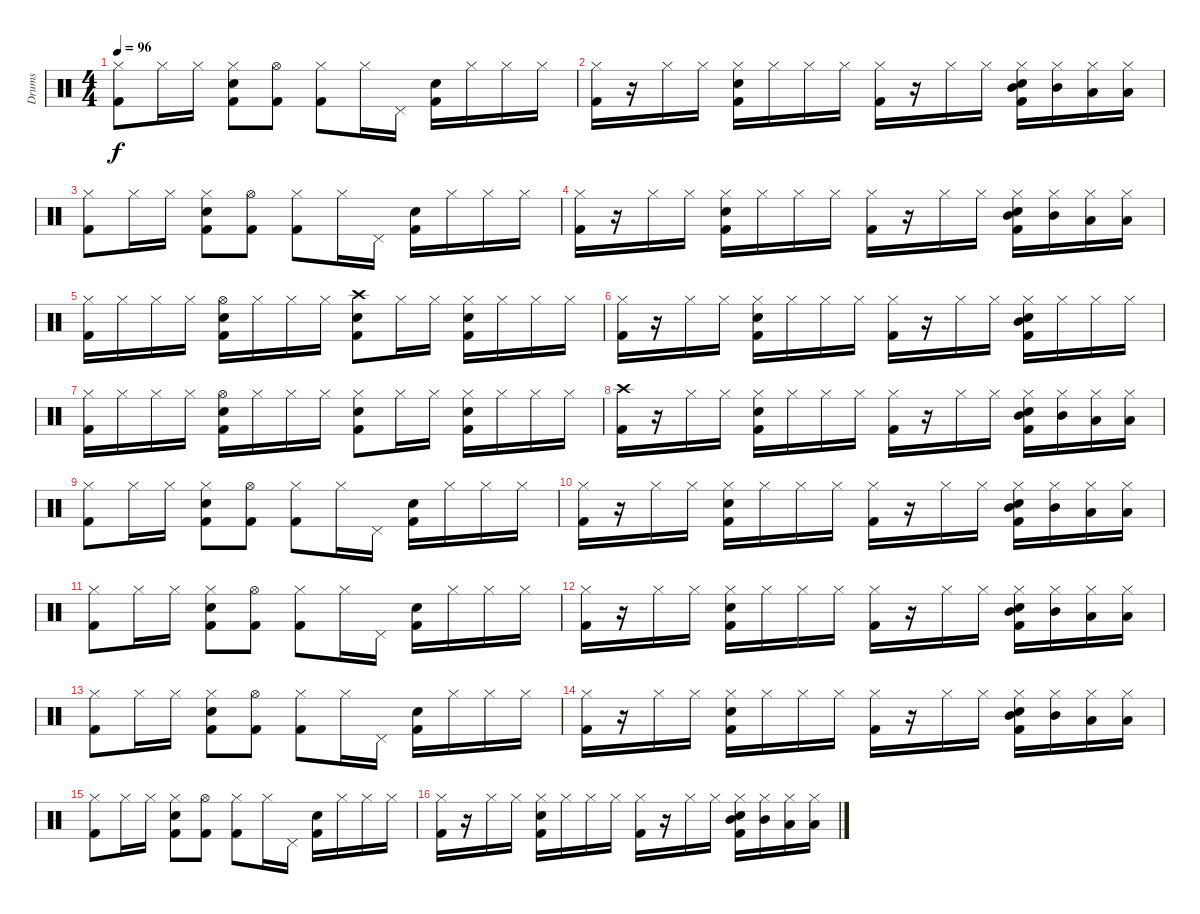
\track ("Drums" "Drums") {instrument percussion}
\staff {score}
\articulation defaults
\ts (4 4)
\tempo 96
\clef neutral
\ks c
("Hi-Hat (closed)" "Kick (hit) 2").8{dy f} "Hi-Hat (closed)".16 "Hi-Hat (closed)".16 ("Hi-Hat (closed)" "Snare (hit) 2" "Kick (hit) 2").8 ("Hi-Hat (open)" "Kick (hit) 2").8 ("Hi-Hat (closed)" "Kick (hit) 2").8 "Hi-Hat (closed)".16 "Pedal Hi-Hat (hit)".16 ("Snare (hit) 2" "Kick (hit) 2").16 "Hi-Hat (closed)".16 "Hi-Hat (closed)".16 "Hi-Hat (closed)".16 |
("Hi-Hat (closed)" "Kick (hit) 2").16 r.16 "Hi-Hat (closed)".16 "Hi-Hat (closed)".16 ("Hi-Hat (closed)" "Snare (hit) 2" "Kick (hit) 2").16 "Hi-Hat (closed)".16 "Hi-Hat (closed)".16 "Hi-Hat (closed)".16 ("Hi-Hat (closed)" "Kick (hit) 2").16 r.16 "Hi-Hat (closed)".16 "Hi-Hat (closed)".16 ("Hi-Hat (closed)" "Snare (hit) 2" "Mid Tom (hit)" "Kick (hit) 2").16 ("Hi-Hat (closed)" "Mid Tom (hit)").16 ("Hi-Hat (closed)" "Low Tom (hit)").16 ("Hi-Hat (closed)" "Low Tom (hit)").16 |
("Hi-Hat (closed)" "Kick (hit) 2").8 "Hi-Hat (closed)".16 "Hi-Hat (closed)".16 ("Hi-Hat (closed)" "Snare (hit) 2" "Kick (hit) 2").8 ("Hi-Hat (open)" "Kick (hit) 2").8 ("Hi-Hat (closed)" "Kick (hit) 2").8 "Hi-Hat (closed)".16 "Pedal Hi-Hat (hit)".16 ("Snare (hit) 2" "Kick (hit) 2").16 "Hi-Hat (closed)".16 "Hi-Hat (closed)".16 "Hi-Hat (closed)".16 |
("Hi-Hat (closed)" "Kick (hit) 2").16 r.16 "Hi-Hat (closed)".16 "Hi-Hat (closed)".16 ("Hi-Hat (closed)" "Snare (hit) 2" "Kick (hit) 2").16 "Hi-Hat (closed)".16 "Hi-Hat (closed)".16 "Hi-Hat (closed)".16 ("Hi-Hat (closed)" "Kick (hit) 2").16 r.16 "Hi-Hat (closed)".16 "Hi-Hat (closed)".16 ("Hi-Hat (closed)" "Snare (hit) 2" "Mid Tom (hit)" "Kick (hit) 2").16 ("Hi-Hat (closed)" "Mid Tom (hit)").16 ("Hi-Hat (closed)" "Low Tom (hit)").16 ("Hi-Hat (closed)" "Low Tom (hit)").16 |
("Hi-Hat (closed)" "Kick (hit) 2").16 "Hi-Hat (closed)".16 "Hi-Hat (closed)".16 "Hi-Hat (closed)".16 ("Hi-Hat (open)" "Snare (hit) 2" "Kick (hit) 2").16 "Hi-Hat (closed)".16 "Hi-Hat (closed)".16 "Hi-Hat (closed)".16 ("Crash high (hit)" "Snare (hit) 2" "Kick (hit) 2").8 "Hi-Hat (closed)".16 "Hi-Hat (closed)".16 ("Hi-Hat (closed)" "Snare (hit) 2" "Kick (hit) 2").16 "Hi-Hat (closed)".16 "Hi-Hat (closed)".16 "Hi-Hat (closed)".16 |
("Hi-Hat (closed)" "Kick (hit) 2").16 r.16 "Hi-Hat (closed)".16 "Hi-Hat (closed)".16 ("Hi-Hat (closed)" "Snare (hit) 2" "Kick (hit) 2").16 "Hi-Hat (closed)".16 "Hi-Hat (closed)".16 "Hi-Hat (closed)".16 ("Hi-Hat (closed)" "Kick (hit) 2").16 r.16 "Hi-Hat (closed)".16 "Hi-Hat (closed)".16 ("Hi-Hat (closed)" "Snare (hit) 2" "Mid Tom (hit)" "Kick (hit) 2").16 "Hi-Hat (closed)".16 "Hi-Hat (closed)".16 "Hi-Hat (closed)".16 |
("Hi-Hat (closed)" "Kick (hit) 2").16 "Hi-Hat (closed)".16 "Hi-Hat (closed)".16 "Hi-Hat (closed)".16 ("Hi-Hat (open)" "Snare (hit) 2" "Kick (hit) 2").16 "Hi-Hat (closed)".16 "Hi-Hat (closed)".16 "Hi-Hat (closed)".16 ("Hi-Hat (closed)" "Snare (hit) 2" "Kick (hit) 2").8 "Hi-Hat (closed)".16 "Hi-Hat (closed)".16 ("Hi-Hat (closed)" "Snare (hit) 2" "Kick (hit) 2").16 "Hi-Hat (closed)".16 "Hi-Hat (closed)".16 "Hi-Hat (closed)".16 |
("Crash high (hit)" "Kick (hit) 2").16 r.16 "Hi-Hat (closed)".16 "Hi-Hat (closed)".16 ("Hi-Hat (closed)" "Snare (hit) 2" "Kick (hit) 2").16 "Hi-Hat (closed)".16 "Hi-Hat (closed)".16 "Hi-Hat (closed)".16 ("Hi-Hat (closed)" "Kick (hit) 2").16 r.16 "Hi-Hat (closed)".16 "Hi-Hat (closed)".16 ("Hi-Hat (closed)" "Snare (hit) 2" "Mid Tom (hit)" "Kick (hit) 2").16 ("Hi-Hat (closed)" "Mid Tom (hit)").16 ("Hi-Hat (closed)" "Low Tom (hit)").16 ("Hi-Hat (closed)" "Low Tom (hit)").16 |
("Hi-Hat (closed)" "Kick (hit) 2").8 "Hi-Hat (closed)".16 "Hi-Hat (closed)".16 ("Hi-Hat (closed)" "Snare (hit) 2" "Kick (hit) 2").8 ("Hi-Hat (open)" "Kick (hit) 2").8 ("Hi-Hat (closed)" "Kick (hit) 2").8 "Hi-Hat (closed)".16 "Pedal Hi-Hat (hit)".16 ("Snare (hit) 2" "Kick (hit) 2").16 "Hi-Hat (closed)".16 "Hi-Hat (closed)".16 "Hi-Hat (closed)".16 |
("Hi-Hat (closed)" "Kick (hit) 2").16 r.16 "Hi-Hat (closed)".16 "Hi-Hat (closed)".16 ("Hi-Hat (closed)" "Snare (hit) 2" "Kick (hit) 2").16 "Hi-Hat (closed)".16 "Hi-Hat (closed)".16 "Hi-Hat (closed)".16 ("Hi-Hat (closed)" "Kick (hit) 2").16 r.16 "Hi-Hat (closed)".16 "Hi-Hat (closed)".16 ("Hi-Hat (closed)" "Snare (hit) 2" "Mid Tom (hit)" "Kick (hit) 2").16 ("Hi-Hat (closed)" "Mid Tom (hit)").16 ("Hi-Hat (closed)" "Low Tom (hit)").16 ("Hi-Hat (closed)" "Low Tom (hit)").16 |
("Hi-Hat (closed)" "Kick (hit) 2").8 "Hi-Hat (closed)".16 "Hi-Hat (closed)".16 ("Hi-Hat (closed)" "Snare (hit) 2" "Kick (hit) 2").8 ("Hi-Hat (open)" "Kick (hit) 2").8 ("Hi-Hat (closed)" "Kick (hit) 2").8 "Hi-Hat (closed)".16 "Pedal Hi-Hat (hit)".16 ("Snare (hit) 2" "Kick (hit) 2").16 "Hi-Hat (closed)".16 "Hi-Hat (closed)".16 "Hi-Hat (closed)".16 |
("Hi-Hat (closed)" "Kick (hit) 2").16 r.16 "Hi-Hat (closed)".16 "Hi-Hat (closed)".16 ("Hi-Hat (closed)" "Snare (hit) 2" "Kick (hit) 2").16 "Hi-Hat (closed)".16 "Hi-Hat (closed)".16 "Hi-Hat (closed)".16 ("Hi-Hat (closed)" "Kick (hit) 2").16 r.16 "Hi-Hat (closed)".16 "Hi-Hat (closed)".16 ("Hi-Hat (closed)" "Snare (hit) 2" "Mid Tom (hit)" "Kick (hit) 2").16 ("Hi-Hat (closed)" "Mid Tom (hit)").16 ("Hi-Hat (closed)" "Low Tom (hit)").16 ("Hi-Hat (closed)" "Low Tom (hit)").16 |
("Hi-Hat (closed)" "Kick (hit) 2").8 "Hi-Hat (closed)".16 "Hi-Hat (closed)".16 ("Hi-Hat (closed)" "Snare (hit) 2" "Kick (hit) 2").8 ("Hi-Hat (open)" "Kick (hit) 2").8 ("Hi-Hat (closed)" "Kick (hit) 2").8 "Hi-Hat (closed)".16 "Pedal Hi-Hat (hit)".16 ("Snare (hit) 2" "Kick (hit) 2").16 "Hi-Hat (closed)".16 "Hi-Hat (closed)".16 "Hi-Hat (closed)".16 |
("Hi-Hat (closed)" "Kick (hit) 2").16 r.16 "Hi-Hat (closed)".16 "Hi-Hat (closed)".16 ("Hi-Hat (closed)" "Snare (hit) 2" "Kick (hit) 2").16 "Hi-Hat (closed)".16 "Hi-Hat (closed)".16 "Hi-Hat (closed)".16 ("Hi-Hat (closed)" "Kick (hit) 2").16 r.16 "Hi-Hat (closed)".16 "Hi-Hat (closed)".16 ("Hi-Hat (closed)" "Snare (hit) 2" "Mid Tom (hit)" "Kick (hit) 2").16 ("Hi-Hat (closed)" "Mid Tom (hit)").16 ("Hi-Hat (closed)" "Low Tom (hit)").16 ("Hi-Hat (closed)" "Low Tom (hit)").16 |
("Hi-Hat (closed)" "Kick (hit) 2").8 "Hi-Hat (closed)".16 "Hi-Hat (closed)".16 ("Hi-Hat (closed)" "Snare (hit) 2" "Kick (hit) 2").8 ("Hi-Hat (open)" "Kick (hit) 2").8 ("Hi-Hat (closed)" "Kick (hit) 2").8 "Hi-Hat (closed)".16 "Pedal Hi-Hat (hit)".16 ("Snare (hit) 2" "Kick (hit) 2").16 "Hi-Hat (closed)".16 "Hi-Hat (closed)".16 "Hi-Hat (closed)".16 |
("Hi-Hat (closed)" "Kick (hit) 2").16 r.16 "Hi-Hat (closed)".16 "Hi-Hat (closed)".16 ("Hi-Hat (closed)" "Snare (hit) 2" "Kick (hit) 2").16 "Hi-Hat (closed)".16 "Hi-Hat (closed)".16 "Hi-Hat (closed)".16 ("Hi-Hat (closed)" "Kick (hit) 2").16 r.16 "Hi-Hat (closed)".16 "Hi-Hat (closed)".16 ("Hi-Hat (closed)" "Snare (hit) 2" "Mid Tom (hit)" "Kick (hit) 2").16 ("Hi-Hat (closed)" "Mid Tom (hit)").16 ("Hi-Hat (closed)" "Low Tom (hit)").16 ("Hi-Hat (closed)" "Low Tom (hit)").16
